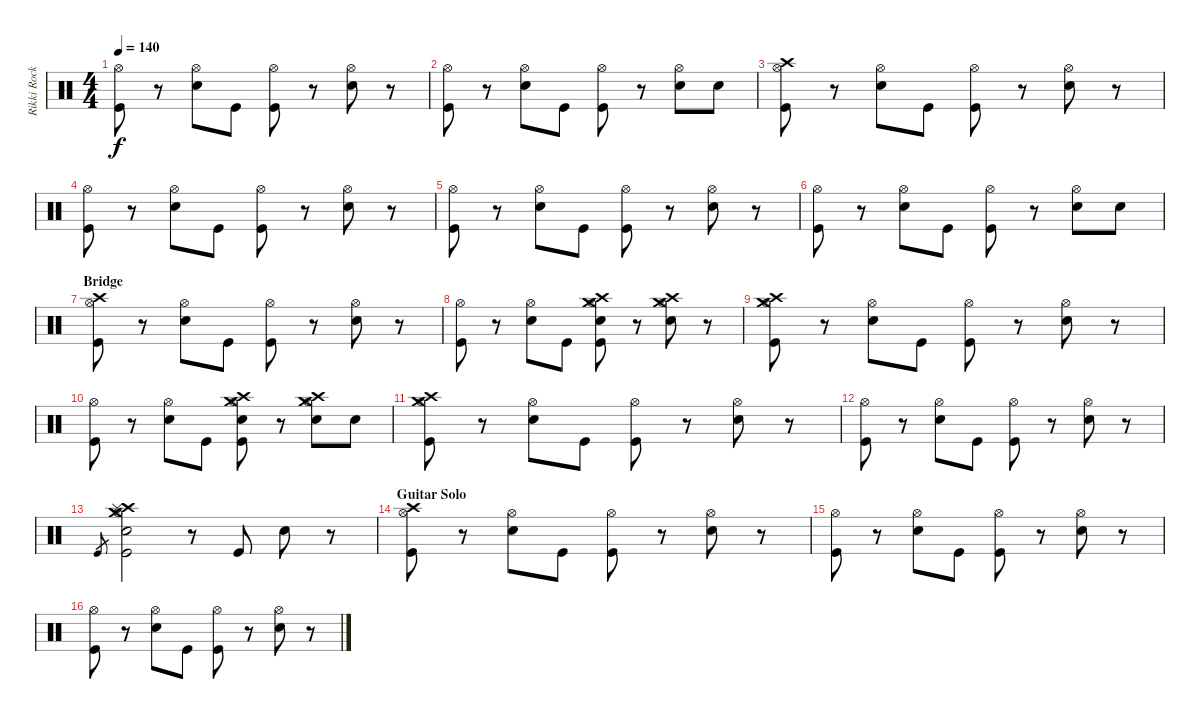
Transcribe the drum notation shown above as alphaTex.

\track ("Rikki Rockett - Drums" "Rikki Rock") {instrument percussion}
\staff {score}
\articulation defaults
\ts (4 4)
\tempo 140
\clef neutral
\ks c
("Hi-Hat (open)" "Kick (hit)").8{dy f} r.8 ("Hi-Hat (open)" "Snare (hit) 2").8 "Kick (hit)".8 ("Hi-Hat (open)" "Kick (hit)").8 r.8 ("Hi-Hat (open)" "Snare (hit) 2").8 r.8 |
("Hi-Hat (open)" "Kick (hit)").8 r.8 ("Hi-Hat (open)" "Snare (hit) 2").8 "Kick (hit)".8 ("Hi-Hat (open)" "Kick (hit)").8 r.8 ("Hi-Hat (open)" "Snare (hit) 2").8 "Snare (hit) 2".8 |
("Hi-Hat (open)" "Crash high (hit)" "Kick (hit)").8 r.8 ("Hi-Hat (open)" "Snare (hit) 2").8 "Kick (hit)".8 ("Hi-Hat (open)" "Kick (hit)").8 r.8 ("Hi-Hat (open)" "Snare (hit) 2").8 r.8 |
("Hi-Hat (open)" "Kick (hit)").8 r.8 ("Hi-Hat (open)" "Snare (hit) 2").8 "Kick (hit)".8 ("Hi-Hat (open)" "Kick (hit)").8 r.8 ("Hi-Hat (open)" "Snare (hit) 2").8 r.8 |
("Hi-Hat (open)" "Kick (hit)").8 r.8 ("Hi-Hat (open)" "Snare (hit) 2").8 "Kick (hit)".8 ("Hi-Hat (open)" "Kick (hit)").8 r.8 ("Hi-Hat (open)" "Snare (hit) 2").8 r.8 |
("Hi-Hat (open)" "Kick (hit)").8 r.8 ("Hi-Hat (open)" "Snare (hit) 2").8 "Kick (hit)".8 ("Hi-Hat (open)" "Kick (hit)").8 r.8 ("Hi-Hat (open)" "Snare (hit) 2").8 "Snare (hit) 2".8 |
\section ("" "Bridge")
("Hi-Hat (open)" "Crash high (hit)" "Kick (hit)").8 r.8 ("Hi-Hat (open)" "Snare (hit) 2").8 "Kick (hit)".8 ("Hi-Hat (open)" "Kick (hit)").8 r.8 ("Hi-Hat (open)" "Snare (hit) 2").8 r.8 |
("Hi-Hat (open)" "Kick (hit)").8 r.8 ("Hi-Hat (open)" "Snare (hit) 2").8 "Kick (hit)".8 ("Hi-Hat (open)" "Crash high (hit)" "Snare (hit) 2" "Crash medium (hit)" "Kick (hit)").8 r.8 ("Hi-Hat (open)" "Crash high (hit)" "Crash medium (hit)" "Snare (hit) 2").8 r.8 |
("Hi-Hat (open)" "Crash high (hit)" "Crash medium (hit)" "Kick (hit)").8 r.8 ("Hi-Hat (open)" "Snare (hit) 2").8 "Kick (hit)".8 ("Hi-Hat (open)" "Kick (hit)").8 r.8 ("Hi-Hat (open)" "Snare (hit) 2").8 r.8 |
("Hi-Hat (open)" "Kick (hit)").8 r.8 ("Hi-Hat (open)" "Snare (hit) 2").8 "Kick (hit)".8 ("Hi-Hat (open)" "Crash high (hit)" "Snare (hit) 2" "Crash medium (hit)" "Kick (hit)").8 r.8 ("Hi-Hat (open)" "Crash high (hit)" "Crash medium (hit)" "Snare (hit) 2").8 "Snare (hit) 2".8 |
("Hi-Hat (open)" "Crash high (hit)" "Crash medium (hit)" "Kick (hit)").8 r.8 ("Hi-Hat (open)" "Snare (hit) 2").8 "Kick (hit)".8 ("Hi-Hat (open)" "Kick (hit)").8 r.8 ("Hi-Hat (open)" "Snare (hit) 2").8 r.8 |
("Hi-Hat (open)" "Kick (hit)").8 r.8 ("Hi-Hat (open)" "Snare (hit) 2").8 "Kick (hit)".8 ("Hi-Hat (open)" "Kick (hit)").8 r.8 ("Hi-Hat (open)" "Snare (hit) 2").8 r.8 |
"Kick (hit)".8{gr} ("Hi-Hat (open)" "Crash medium (hit)" "Crash high (hit)" "Snare (hit) 2" "Splash (hit)" "Kick (hit)").2 r.8 "Kick (hit)".8 "Snare (hit) 2".8 r.8 |
\section ("" "Guitar Solo")
("Hi-Hat (open)" "Crash high (hit)" "Kick (hit)").8 r.8 ("Hi-Hat (open)" "Snare (hit) 2").8 "Kick (hit)".8 ("Hi-Hat (open)" "Kick (hit)").8 r.8 ("Hi-Hat (open)" "Snare (hit) 2").8 r.8 |
("Hi-Hat (open)" "Kick (hit)").8 r.8 ("Hi-Hat (open)" "Snare (hit) 2").8 "Kick (hit)".8 ("Hi-Hat (open)" "Kick (hit)").8 r.8 ("Hi-Hat (open)" "Snare (hit) 2").8 r.8 |
("Hi-Hat (open)" "Kick (hit)").8 r.8 ("Hi-Hat (open)" "Snare (hit) 2").8 "Kick (hit)".8 ("Hi-Hat (open)" "Kick (hit)").8 r.8 ("Hi-Hat (open)" "Snare (hit) 2").8 r.8
